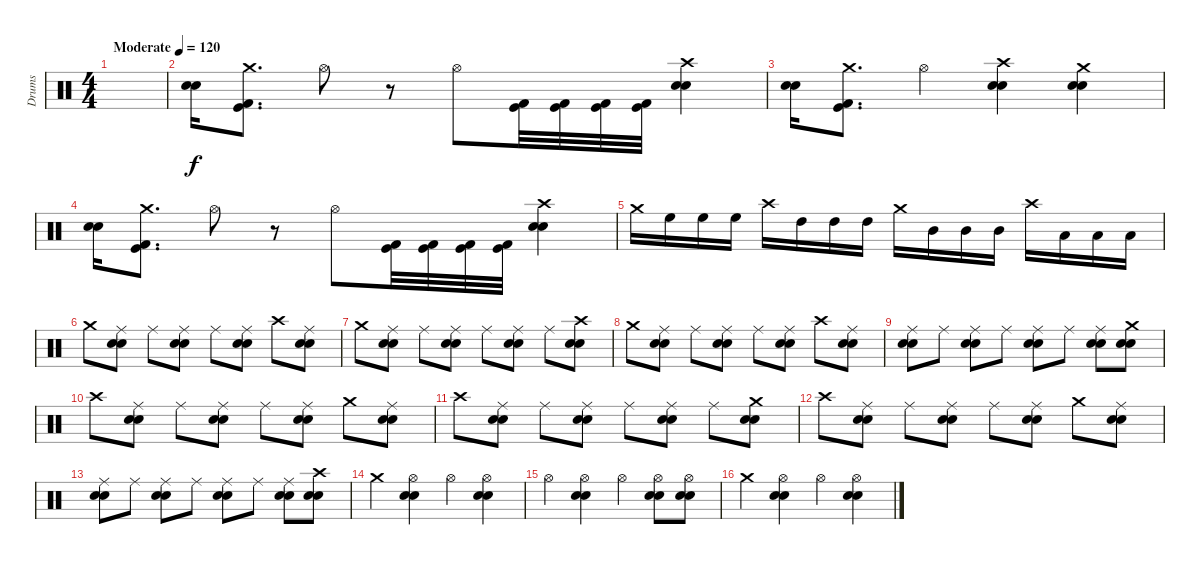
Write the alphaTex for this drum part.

\track ("Drums" "Drums") {instrument percussion}
\staff {score}
\articulation defaults
\ts (4 4)
\tempo (120 "Moderate")
\clef neutral
\ks c
|
("Electric Snare (hit)" "Snare (hit) 2").16 ("Kick (hit) 2" "Kick (hit)" "Crash medium (hit)").8{d} "Hi-Hat (open)".8 r.8 "Hi-Hat (open)".8 ("Kick (hit) 2" "Kick (hit)").32 ("Kick (hit) 2" "Kick (hit)").32 ("Kick (hit) 2" "Kick (hit)").32 ("Kick (hit) 2" "Kick (hit)").32 ("Electric Snare (hit)" "Snare (hit) 2" "Crash high (hit)").4 |
("Electric Snare (hit)" "Snare (hit) 2").16 ("Kick (hit) 2" "Kick (hit)" "Crash medium (hit)").8{d} "Hi-Hat (open)".4 ("Electric Snare (hit)" "Snare (hit) 2" "Crash high (hit)").4 ("Electric Snare (hit)" "Snare (hit) 2" "Crash medium (hit)").4 |
("Electric Snare (hit)" "Snare (hit) 2").16 ("Kick (hit) 2" "Kick (hit)" "Crash medium (hit)").8{d} "Hi-Hat (open)".8 r.8 "Hi-Hat (open)".8 ("Kick (hit) 2" "Kick (hit)").32 ("Kick (hit) 2" "Kick (hit)").32 ("Kick (hit) 2" "Kick (hit)").32 ("Kick (hit) 2" "Kick (hit)").32 ("Electric Snare (hit)" "Snare (hit) 2" "Crash high (hit)").4 |
"Crash medium (hit)".16 "High Floor Tom (hit)".16 "High Floor Tom (hit)".16 "High Floor Tom (hit)".16 "Crash high (hit)".16 "High Tom (hit)".16 "High Tom (hit)".16 "High Tom (hit)".16 "Crash medium (hit)".16 "Mid Tom (hit)".16 "Mid Tom (hit)".16 "Mid Tom (hit)".16 "Crash high (hit)".16 "Low Tom (hit)".16 "Low Tom (hit)".16 "Low Tom (hit)".16 |
"Crash medium (hit)".8 ("Ride (middle)" "Electric Snare (hit)" "Snare (hit) 2").8 "Ride (middle)".8 ("Ride (middle)" "Electric Snare (hit)" "Snare (hit) 2").8 "Ride (middle)".8 ("Ride (middle)" "Electric Snare (hit)" "Snare (hit) 2").8 "Crash high (hit)".8 ("Ride (middle)" "Electric Snare (hit)" "Snare (hit) 2").8 |
"Crash medium (hit)".8 ("Ride (middle)" "Electric Snare (hit)" "Snare (hit) 2").8 "Ride (middle)".8 ("Ride (middle)" "Electric Snare (hit)" "Snare (hit) 2").8 "Ride (middle)".8 ("Ride (middle)" "Electric Snare (hit)" "Snare (hit) 2").8 "Ride (middle)".8 ("Crash high (hit)" "Electric Snare (hit)" "Snare (hit) 2").8 |
"Crash medium (hit)".8 ("Ride (middle)" "Electric Snare (hit)" "Snare (hit) 2").8 "Ride (middle)".8 ("Ride (middle)" "Electric Snare (hit)" "Snare (hit) 2").8 "Ride (middle)".8 ("Ride (middle)" "Electric Snare (hit)" "Snare (hit) 2").8 "Crash high (hit)".8 ("Ride (middle)" "Electric Snare (hit)" "Snare (hit) 2").8 |
("Ride (middle)" "Electric Snare (hit)" "Snare (hit) 2").8 "Ride (middle)".8 ("Ride (middle)" "Electric Snare (hit)" "Snare (hit) 2").8 "Ride (middle)".8 ("Ride (middle)" "Electric Snare (hit)" "Snare (hit) 2").8 "Ride (middle)".8 ("Ride (middle)" "Electric Snare (hit)" "Snare (hit) 2").8 ("Crash medium (hit)" "Electric Snare (hit)" "Snare (hit) 2").8 |
"Crash high (hit)".8 ("Ride (middle)" "Electric Snare (hit)" "Snare (hit) 2").8 "Ride (middle)".8 ("Ride (middle)" "Electric Snare (hit)" "Snare (hit) 2").8 "Ride (middle)".8 ("Ride (middle)" "Electric Snare (hit)" "Snare (hit) 2").8 "Crash medium (hit)".8 ("Ride (middle)" "Electric Snare (hit)" "Snare (hit) 2").8 |
"Crash high (hit)".8 ("Ride (middle)" "Electric Snare (hit)" "Snare (hit) 2").8 "Ride (middle)".8 ("Ride (middle)" "Electric Snare (hit)" "Snare (hit) 2").8 "Ride (middle)".8 ("Ride (middle)" "Electric Snare (hit)" "Snare (hit) 2").8 "Ride (middle)".8 ("Crash medium (hit)" "Electric Snare (hit)" "Snare (hit) 2").8 |
"Crash high (hit)".8 ("Ride (middle)" "Electric Snare (hit)" "Snare (hit) 2").8 "Ride (middle)".8 ("Ride (middle)" "Electric Snare (hit)" "Snare (hit) 2").8 "Ride (middle)".8 ("Ride (middle)" "Electric Snare (hit)" "Snare (hit) 2").8 "Crash medium (hit)".8 ("Ride (middle)" "Electric Snare (hit)" "Snare (hit) 2").8 |
("Ride (middle)" "Electric Snare (hit)" "Snare (hit) 2").8 "Ride (middle)".8 ("Ride (middle)" "Electric Snare (hit)" "Snare (hit) 2").8 "Ride (middle)".8 ("Ride (middle)" "Electric Snare (hit)" "Snare (hit) 2").8 "Ride (middle)".8 ("Ride (middle)" "Electric Snare (hit)" "Snare (hit) 2").8 ("Crash high (hit)" "Electric Snare (hit)" "Snare (hit) 2").8 |
"Crash medium (hit)".4 ("Hi-Hat (open)" "Electric Snare (hit)" "Snare (hit) 2").4 "Hi-Hat (open)".4 ("Hi-Hat (open)" "Electric Snare (hit)" "Snare (hit) 2").4 |
"Hi-Hat (open)".4 ("Hi-Hat (open)" "Electric Snare (hit)" "Snare (hit) 2").4 "Hi-Hat (open)".4 ("Hi-Hat (open)" "Electric Snare (hit)" "Snare (hit) 2").8 ("Hi-Hat (open)" "Electric Snare (hit)" "Snare (hit) 2").8 |
"Crash medium (hit)".4 ("Hi-Hat (open)" "Electric Snare (hit)" "Snare (hit) 2").4 "Hi-Hat (open)".4 ("Hi-Hat (open)" "Electric Snare (hit)" "Snare (hit) 2").4
